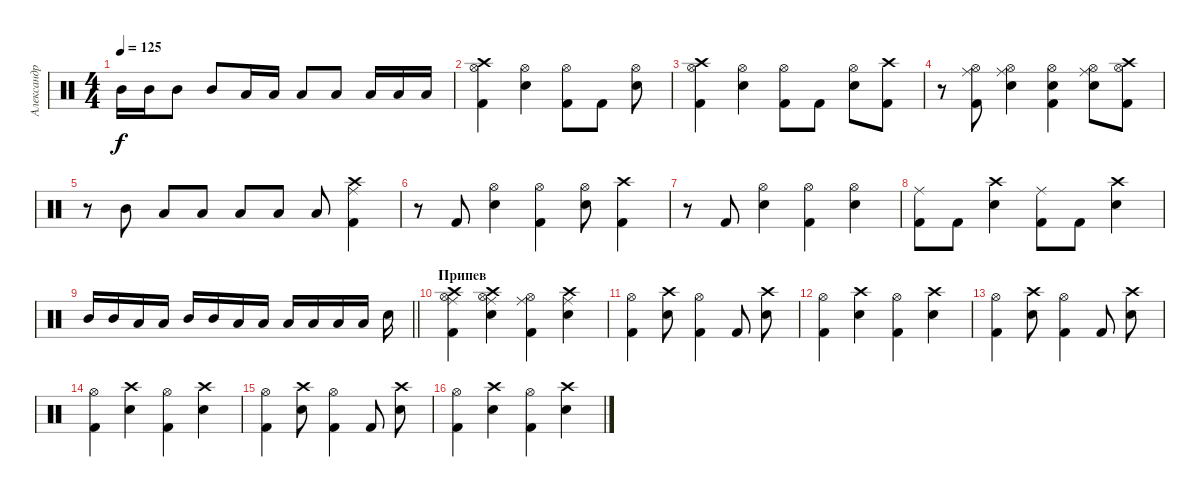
\track ("Александр Манякин" "Александр ") {instrument percussion}
\staff {score}
\articulation defaults
\ts (4 4)
\tempo 125
\clef neutral
\ks c "Mid Tom (hit)".16{dy f} "Mid Tom (hit)".16 "Mid Tom (hit)".8 "Mid Tom (hit)".8 "Low Tom (hit)".16 "Low Tom (hit)".16 "Low Tom (hit)".8 "Low Tom (hit)".8 "Low Floor Tom (hit)".16 "Low Floor Tom (hit)".16 "Low Floor Tom (hit)".16
|
("Hi-Hat (open)" "Kick (hit) 2" "Crash high (hit)").4 ("Hi-Hat (open)" "Snare (hit) 2").4 ("Hi-Hat (open)" "Kick (hit) 2").8 "Kick (hit) 2".8 ("Hi-Hat (open)" "Snare (hit) 2").8 |
("Hi-Hat (open)" "Kick (hit) 2" "Crash high (hit)").4 ("Hi-Hat (open)" "Snare (hit) 2").4 ("Hi-Hat (open)" "Kick (hit) 2").8 "Kick (hit) 2".8 ("Hi-Hat (open)" "Snare (hit) 2").8 ("Crash high (hit)" "Kick (hit) 2").8 |
r.8 ("Hi-Hat (open)" "Ride (middle)" "Kick (hit) 2").8 ("Hi-Hat (open)" "Ride (middle)" "Snare (hit) 2").4 ("Hi-Hat (open)" "Snare (hit)" "Kick (hit) 2").4 ("Hi-Hat (open)" "Ride (middle)" "Snare (hit) 2").8 ("Hi-Hat (open)" "Crash high (hit)" "Kick (hit) 2").8 |
r.8 "Mid Tom (hit)".8 "Low Tom (hit)".8 "Low Tom (hit)".8 "Low Tom (hit)".8 "Low Tom (hit)".8 "Low Floor Tom (hit)".8 ("Ride (middle)" "Crash high (hit)" "Kick (hit) 2").4 |
r.8 "Kick (hit) 2".8 ("Hi-Hat (open)" "Snare (hit) 2").4 ("Hi-Hat (open)" "Kick (hit) 2").4 ("Hi-Hat (open)" "Snare (hit) 2").8 ("Crash high (hit)" "Kick (hit) 2").4 |
r.8 "Kick (hit) 2".8 ("Hi-Hat (open)" "Snare (hit) 2").4 ("Hi-Hat (open)" "Kick (hit) 2").4 ("Hi-Hat (open)" "Snare (hit) 2").4 |
("Kick (hit) 2" "Ride (middle)").8 "Kick (hit) 2".8 ("Crash high (hit)" "Snare (hit) 2").4 ("Kick (hit) 2" "Ride (middle)").8 "Kick (hit) 2".8 ("Crash high (hit)" "Snare (hit) 2").4 |
\barLineRight lightlight "Mid Tom (hit)".16 "Mid Tom (hit)".16 "Low Tom (hit)".16 "Low Tom (hit)".16 "Mid Tom (hit)".16 "Mid Tom (hit)".16 "Low Floor Tom (hit)".16 "Low Floor Tom (hit)".16 "Low Tom (hit)".16 "Low Tom (hit)".16 "Low Floor Tom (hit)".16 "Low Floor Tom (hit)".16 "Snare (hit) 2".16
|
\section ("" "Припев")
("Crash high (hit)" "Kick (hit) 2" "Hi-Hat (open)" "Ride (middle)").4 ("Hi-Hat (open)" "Snare (hit) 2" "Crash high (hit)" "Ride (middle)").4 ("Hi-Hat (open)" "Kick (hit) 2" "Ride (middle)").4 ("Ride (middle)" "Snare (hit) 2" "Crash high (hit)").4 |
("Kick (hit) 2" "Hi-Hat (open)").4 ("Snare (hit) 2" "Crash high (hit)").8 ("Kick (hit) 2" "Hi-Hat (open)").4 "Kick (hit) 2".8 ("Snare (hit) 2" "Crash high (hit)").8 |
("Kick (hit) 2" "Hi-Hat (open)").4 ("Snare (hit) 2" "Crash high (hit)").4 ("Kick (hit) 2" "Hi-Hat (open)").4 ("Snare (hit) 2" "Crash high (hit)").4 |
("Kick (hit) 2" "Hi-Hat (open)").4 ("Snare (hit) 2" "Crash high (hit)").8 ("Kick (hit) 2" "Hi-Hat (open)").4 "Kick (hit) 2".8 ("Snare (hit) 2" "Crash high (hit)").8 |
("Kick (hit) 2" "Hi-Hat (open)").4 ("Snare (hit) 2" "Crash high (hit)").4 ("Kick (hit) 2" "Hi-Hat (open)").4 ("Snare (hit) 2" "Crash high (hit)").4 |
("Kick (hit) 2" "Hi-Hat (open)").4 ("Snare (hit) 2" "Crash high (hit)").8 ("Kick (hit) 2" "Hi-Hat (open)").4 "Kick (hit) 2".8 ("Snare (hit) 2" "Crash high (hit)").8 |
("Kick (hit) 2" "Hi-Hat (open)").4 ("Snare (hit) 2" "Crash high (hit)").4 ("Kick (hit) 2" "Hi-Hat (open)").4 ("Snare (hit) 2" "Crash high (hit)").4
